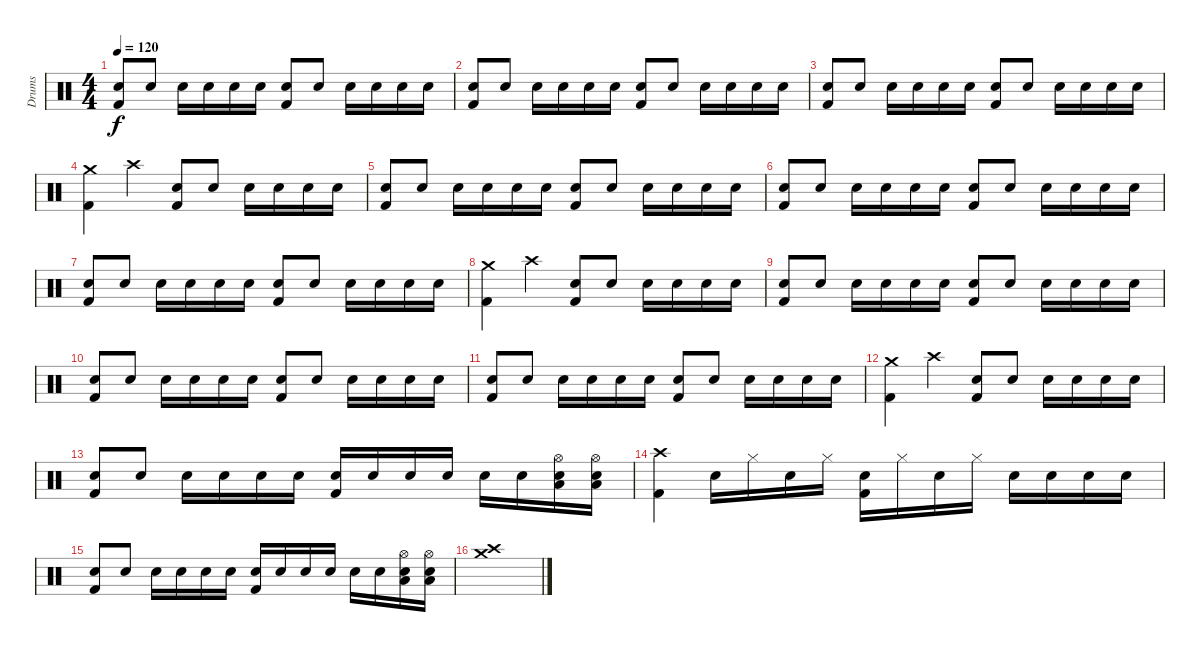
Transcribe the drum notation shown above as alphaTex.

\track ("Drums" "Drums") {instrument percussion}
\staff {score}
\articulation defaults
\ts (4 4)
\tempo 120
\clef neutral
\ks c
("Snare (hit) 2" "Kick (hit) 2").8{dy f} "Electric Snare (hit)".8 "Snare (hit) 2".16 "Electric Snare (hit)".16 "Snare (hit) 2".16 "Electric Snare (hit)".16 ("Snare (hit) 2" "Kick (hit) 2").8 "Electric Snare (hit)".8 "Snare (hit) 2".16 "Electric Snare (hit)".16 "Snare (hit) 2".16 "Electric Snare (hit)".16 |
("Snare (hit) 2" "Kick (hit) 2").8 "Electric Snare (hit)".8 "Snare (hit) 2".16 "Electric Snare (hit)".16 "Snare (hit) 2".16 "Electric Snare (hit)".16 ("Snare (hit) 2" "Kick (hit) 2").8 "Electric Snare (hit)".8 "Snare (hit) 2".16 "Electric Snare (hit)".16 "Snare (hit) 2".16 "Electric Snare (hit)".16 |
("Snare (hit) 2" "Kick (hit) 2").8 "Electric Snare (hit)".8 "Snare (hit) 2".16 "Electric Snare (hit)".16 "Snare (hit) 2".16 "Electric Snare (hit)".16 ("Snare (hit) 2" "Kick (hit) 2").8 "Electric Snare (hit)".8 "Snare (hit) 2".16 "Electric Snare (hit)".16 "Snare (hit) 2".16 "Electric Snare (hit)".16 |
("Kick (hit) 2" "Crash medium (hit)").4 "Crash high (hit)".4 ("Snare (hit) 2" "Kick (hit) 2").8 "Electric Snare (hit)".8 "Snare (hit) 2".16 "Electric Snare (hit)".16 "Snare (hit) 2".16 "Electric Snare (hit)".16 |
("Snare (hit) 2" "Kick (hit) 2").8 "Electric Snare (hit)".8 "Snare (hit) 2".16 "Electric Snare (hit)".16 "Snare (hit) 2".16 "Electric Snare (hit)".16 ("Snare (hit) 2" "Kick (hit) 2").8 "Electric Snare (hit)".8 "Snare (hit) 2".16 "Electric Snare (hit)".16 "Snare (hit) 2".16 "Electric Snare (hit)".16 |
("Snare (hit) 2" "Kick (hit) 2").8 "Electric Snare (hit)".8 "Snare (hit) 2".16 "Electric Snare (hit)".16 "Snare (hit) 2".16 "Electric Snare (hit)".16 ("Snare (hit) 2" "Kick (hit) 2").8 "Electric Snare (hit)".8 "Snare (hit) 2".16 "Electric Snare (hit)".16 "Snare (hit) 2".16 "Electric Snare (hit)".16 |
("Snare (hit) 2" "Kick (hit) 2").8 "Electric Snare (hit)".8 "Snare (hit) 2".16 "Electric Snare (hit)".16 "Snare (hit) 2".16 "Electric Snare (hit)".16 ("Snare (hit) 2" "Kick (hit) 2").8 "Electric Snare (hit)".8 "Snare (hit) 2".16 "Electric Snare (hit)".16 "Snare (hit) 2".16 "Electric Snare (hit)".16 |
("Kick (hit) 2" "Crash medium (hit)").4 "Crash high (hit)".4 ("Snare (hit) 2" "Kick (hit) 2").8 "Electric Snare (hit)".8 "Snare (hit) 2".16 "Electric Snare (hit)".16 "Snare (hit) 2".16 "Electric Snare (hit)".16 |
("Snare (hit) 2" "Kick (hit) 2").8 "Electric Snare (hit)".8 "Snare (hit) 2".16 "Electric Snare (hit)".16 "Snare (hit) 2".16 "Electric Snare (hit)".16 ("Snare (hit) 2" "Kick (hit) 2").8 "Electric Snare (hit)".8 "Snare (hit) 2".16 "Electric Snare (hit)".16 "Snare (hit) 2".16 "Electric Snare (hit)".16 |
("Snare (hit) 2" "Kick (hit) 2").8 "Electric Snare (hit)".8 "Snare (hit) 2".16 "Electric Snare (hit)".16 "Snare (hit) 2".16 "Electric Snare (hit)".16 ("Snare (hit) 2" "Kick (hit) 2").8 "Electric Snare (hit)".8 "Snare (hit) 2".16 "Electric Snare (hit)".16 "Snare (hit) 2".16 "Electric Snare (hit)".16 |
("Snare (hit) 2" "Kick (hit) 2").8 "Electric Snare (hit)".8 "Snare (hit) 2".16 "Electric Snare (hit)".16 "Snare (hit) 2".16 "Electric Snare (hit)".16 ("Snare (hit) 2" "Kick (hit) 2").8 "Electric Snare (hit)".8 "Snare (hit) 2".16 "Electric Snare (hit)".16 "Snare (hit) 2".16 "Electric Snare (hit)".16 |
("Kick (hit) 2" "Crash medium (hit)").4 "Crash high (hit)".4 ("Snare (hit) 2" "Kick (hit) 2").8 "Electric Snare (hit)".8 "Snare (hit) 2".16 "Electric Snare (hit)".16 "Snare (hit) 2".16 "Electric Snare (hit)".16 |
("Snare (hit) 2" "Kick (hit) 2").8 "Electric Snare (hit)".8 "Snare (hit) 2".16 "Electric Snare (hit)".16 "Snare (hit) 2".16 "Electric Snare (hit)".16 ("Snare (hit) 2" "Kick (hit) 2").16 "Electric Snare (hit)".16 "Snare (hit) 2".16 "Electric Snare (hit)".16 "Snare (hit) 2".16 "Electric Snare (hit)".16 ("Snare (hit) 2" "Hi-Hat (open)" "Low Floor Tom (hit)").16 ("Electric Snare (hit)" "Hi-Hat (open)" "Low Floor Tom (hit)").16 |
("Kick (hit) 2" "Crash high (hit)").4 "Snare (hit) 2".16 "Hi-Hat (closed)".16 "Snare (hit) 2".16 "Hi-Hat (closed)".16 ("Snare (hit) 2" "Kick (hit) 2").16 "Hi-Hat (closed)".16 "Snare (hit) 2".16 "Hi-Hat (closed)".16 "Snare (hit) 2".16 "Electric Snare (hit)".16 "Snare (hit) 2".16 "Electric Snare (hit)".16 |
("Snare (hit) 2" "Kick (hit) 2").8 "Electric Snare (hit)".8 "Snare (hit) 2".16 "Electric Snare (hit)".16 "Snare (hit) 2".16 "Electric Snare (hit)".16 ("Snare (hit) 2" "Kick (hit) 2").16 "Electric Snare (hit)".16 "Snare (hit) 2".16 "Electric Snare (hit)".16 "Snare (hit) 2".16 "Electric Snare (hit)".16 ("Snare (hit) 2" "Hi-Hat (open)" "Low Floor Tom (hit)").16 ("Electric Snare (hit)" "Hi-Hat (open)" "Low Floor Tom (hit)").16 |
("Crash high (hit)" "Crash medium (hit)").1
